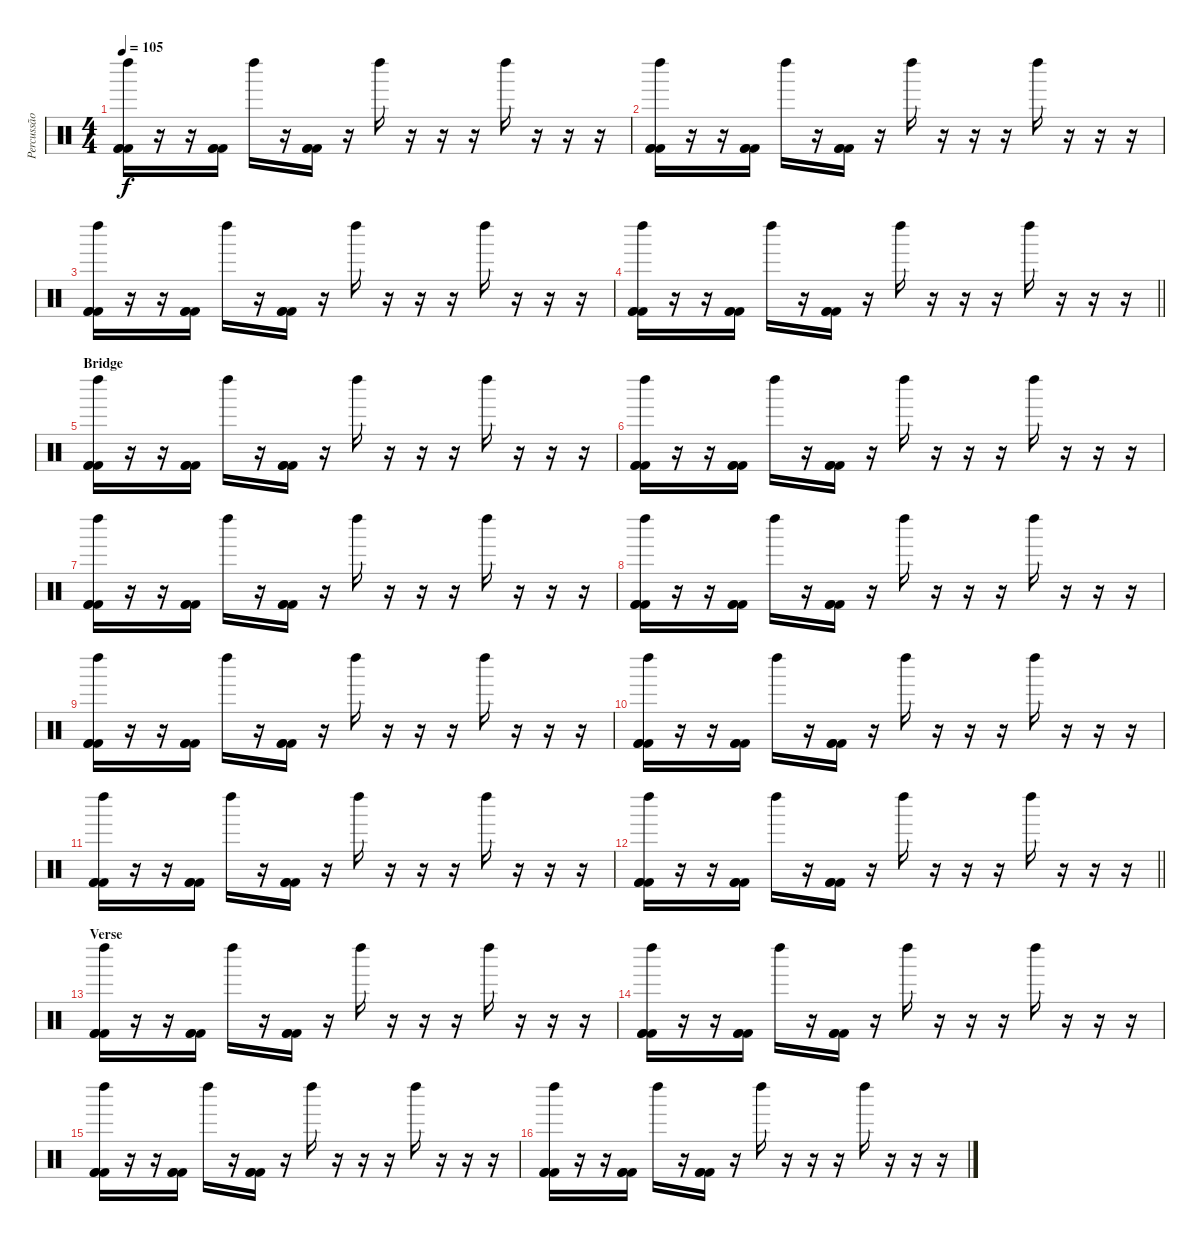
\track ("Percussão" "Percussão") {instrument percussion}
\staff {score}
\articulation defaults
\ts (4 4)
\tempo 105
\clef neutral
\ks c
("Left Maraca (hit)" "Kick (hit) 2" "Kick (hit) 2" "Kick (hit) 2").16{dy f} r.16 r.16 ("Kick (hit) 2" "Kick (hit) 2" "Kick (hit) 2").16 "Left Maraca (hit)".16 r.16 ("Kick (hit) 2" "Kick (hit) 2" "Kick (hit) 2").16 r.16 "Left Maraca (hit)".16 r.16 r.16 r.16 "Left Maraca (hit)".16 r.16 r.16 r.16 |
("Left Maraca (hit)" "Kick (hit) 2" "Kick (hit) 2" "Kick (hit) 2").16 r.16 r.16 ("Kick (hit) 2" "Kick (hit) 2" "Kick (hit) 2").16 "Left Maraca (hit)".16 r.16 ("Kick (hit) 2" "Kick (hit) 2" "Kick (hit) 2").16 r.16 "Left Maraca (hit)".16 r.16 r.16 r.16 "Left Maraca (hit)".16 r.16 r.16 r.16 |
("Left Maraca (hit)" "Kick (hit) 2" "Kick (hit) 2" "Kick (hit) 2").16 r.16 r.16 ("Kick (hit) 2" "Kick (hit) 2" "Kick (hit) 2").16 "Left Maraca (hit)".16 r.16 ("Kick (hit) 2" "Kick (hit) 2" "Kick (hit) 2").16 r.16 "Left Maraca (hit)".16 r.16 r.16 r.16 "Left Maraca (hit)".16 r.16 r.16 r.16 |
\barLineRight lightlight
("Left Maraca (hit)" "Kick (hit) 2" "Kick (hit) 2" "Kick (hit) 2").16 r.16 r.16 ("Kick (hit) 2" "Kick (hit) 2" "Kick (hit) 2").16 "Left Maraca (hit)".16 r.16 ("Kick (hit) 2" "Kick (hit) 2" "Kick (hit) 2").16 r.16 "Left Maraca (hit)".16 r.16 r.16 r.16 "Left Maraca (hit)".16 r.16 r.16 r.16 |
\section ("" "Bridge")
("Left Maraca (hit)" "Kick (hit) 2" "Kick (hit) 2" "Kick (hit) 2").16 r.16 r.16 ("Kick (hit) 2" "Kick (hit) 2" "Kick (hit) 2").16 "Left Maraca (hit)".16 r.16 ("Kick (hit) 2" "Kick (hit) 2" "Kick (hit) 2").16 r.16 "Left Maraca (hit)".16 r.16 r.16 r.16 "Left Maraca (hit)".16 r.16 r.16 r.16 |
("Left Maraca (hit)" "Kick (hit) 2" "Kick (hit) 2" "Kick (hit) 2").16 r.16 r.16 ("Kick (hit) 2" "Kick (hit) 2" "Kick (hit) 2").16 "Left Maraca (hit)".16 r.16 ("Kick (hit) 2" "Kick (hit) 2" "Kick (hit) 2").16 r.16 "Left Maraca (hit)".16 r.16 r.16 r.16 "Left Maraca (hit)".16 r.16 r.16 r.16 |
("Left Maraca (hit)" "Kick (hit) 2" "Kick (hit) 2" "Kick (hit) 2").16 r.16 r.16 ("Kick (hit) 2" "Kick (hit) 2" "Kick (hit) 2").16 "Left Maraca (hit)".16 r.16 ("Kick (hit) 2" "Kick (hit) 2" "Kick (hit) 2").16 r.16 "Left Maraca (hit)".16 r.16 r.16 r.16 "Left Maraca (hit)".16 r.16 r.16 r.16 |
("Left Maraca (hit)" "Kick (hit) 2" "Kick (hit) 2" "Kick (hit) 2").16 r.16 r.16 ("Kick (hit) 2" "Kick (hit) 2" "Kick (hit) 2").16 "Left Maraca (hit)".16 r.16 ("Kick (hit) 2" "Kick (hit) 2" "Kick (hit) 2").16 r.16 "Left Maraca (hit)".16 r.16 r.16 r.16 "Left Maraca (hit)".16 r.16 r.16 r.16 |
("Left Maraca (hit)" "Kick (hit) 2" "Kick (hit) 2" "Kick (hit) 2").16 r.16 r.16 ("Kick (hit) 2" "Kick (hit) 2" "Kick (hit) 2").16 "Left Maraca (hit)".16 r.16 ("Kick (hit) 2" "Kick (hit) 2" "Kick (hit) 2").16 r.16 "Left Maraca (hit)".16 r.16 r.16 r.16 "Left Maraca (hit)".16 r.16 r.16 r.16 |
("Left Maraca (hit)" "Kick (hit) 2" "Kick (hit) 2" "Kick (hit) 2").16 r.16 r.16 ("Kick (hit) 2" "Kick (hit) 2" "Kick (hit) 2").16 "Left Maraca (hit)".16 r.16 ("Kick (hit) 2" "Kick (hit) 2" "Kick (hit) 2").16 r.16 "Left Maraca (hit)".16 r.16 r.16 r.16 "Left Maraca (hit)".16 r.16 r.16 r.16 |
("Left Maraca (hit)" "Kick (hit) 2" "Kick (hit) 2" "Kick (hit) 2").16 r.16 r.16 ("Kick (hit) 2" "Kick (hit) 2" "Kick (hit) 2").16 "Left Maraca (hit)".16 r.16 ("Kick (hit) 2" "Kick (hit) 2" "Kick (hit) 2").16 r.16 "Left Maraca (hit)".16 r.16 r.16 r.16 "Left Maraca (hit)".16 r.16 r.16 r.16 |
\barLineRight lightlight
("Left Maraca (hit)" "Kick (hit) 2" "Kick (hit) 2" "Kick (hit) 2").16 r.16 r.16 ("Kick (hit) 2" "Kick (hit) 2" "Kick (hit) 2").16 "Left Maraca (hit)".16 r.16 ("Kick (hit) 2" "Kick (hit) 2" "Kick (hit) 2").16 r.16 "Left Maraca (hit)".16 r.16 r.16 r.16 "Left Maraca (hit)".16 r.16 r.16 r.16 |
\section ("" "Verse")
("Left Maraca (hit)" "Kick (hit) 2" "Kick (hit) 2" "Kick (hit) 2").16 r.16 r.16 ("Kick (hit) 2" "Kick (hit) 2" "Kick (hit) 2").16 "Left Maraca (hit)".16 r.16 ("Kick (hit) 2" "Kick (hit) 2" "Kick (hit) 2").16 r.16 "Left Maraca (hit)".16 r.16 r.16 r.16 "Left Maraca (hit)".16 r.16 r.16 r.16 |
("Left Maraca (hit)" "Kick (hit) 2" "Kick (hit) 2" "Kick (hit) 2").16 r.16 r.16 ("Kick (hit) 2" "Kick (hit) 2" "Kick (hit) 2").16 "Left Maraca (hit)".16 r.16 ("Kick (hit) 2" "Kick (hit) 2" "Kick (hit) 2").16 r.16 "Left Maraca (hit)".16 r.16 r.16 r.16 "Left Maraca (hit)".16 r.16 r.16 r.16 |
("Left Maraca (hit)" "Kick (hit) 2" "Kick (hit) 2" "Kick (hit) 2").16 r.16 r.16 ("Kick (hit) 2" "Kick (hit) 2" "Kick (hit) 2").16 "Left Maraca (hit)".16 r.16 ("Kick (hit) 2" "Kick (hit) 2" "Kick (hit) 2").16 r.16 "Left Maraca (hit)".16 r.16 r.16 r.16 "Left Maraca (hit)".16 r.16 r.16 r.16 |
("Left Maraca (hit)" "Kick (hit) 2" "Kick (hit) 2" "Kick (hit) 2").16 r.16 r.16 ("Kick (hit) 2" "Kick (hit) 2" "Kick (hit) 2").16 "Left Maraca (hit)".16 r.16 ("Kick (hit) 2" "Kick (hit) 2" "Kick (hit) 2").16 r.16 "Left Maraca (hit)".16 r.16 r.16 r.16 "Left Maraca (hit)".16 r.16 r.16 r.16
